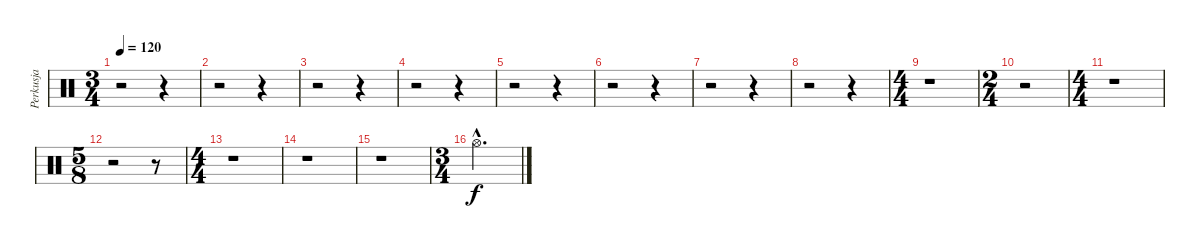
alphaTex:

\track ("Perkusja" "Perkusja") {instrument percussion}
\staff {score}
\articulation defaults
\ts (3 4)
\tempo 120
\clef neutral
\ks c
r.2{dy f} r.4 |
r.2 r.4 |
r.2 r.4 |
r.2 r.4 |
r.2 r.4 |
r.2 r.4 |
r.2 r.4 |
r.2 r.4 |
\ts (4 4)
r.1 |
\ts (2 4)
r.2 |
\ts (4 4)
r.1 |
\ts (5 8)
r.2 r.8 |
\ts (4 4)
r.1 |
r.1 |
r.1 |
\ts (3 4)
"Hi-Hat (open)"{hac}.2{d}
